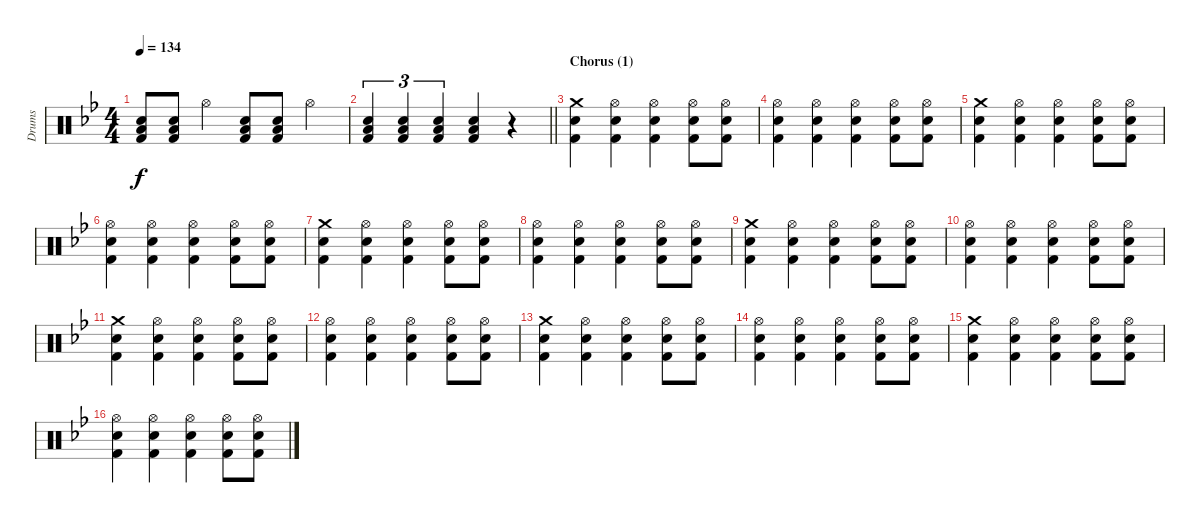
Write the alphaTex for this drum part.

\track ("Drums" "Drums") {instrument percussion}
\staff {score}
\articulation defaults
\ts (4 4)
\tempo 134
\clef neutral
\ks gminor
("Electric Snare (hit)" "Low Floor Tom (hit)" "Kick (hit) 2").8{dy f} ("Electric Snare (hit)" "Low Floor Tom (hit)" "Kick (hit) 2").8 "Hi-Hat (open)".4 ("Electric Snare (hit)" "Low Floor Tom (hit)" "Kick (hit) 2").8 ("Electric Snare (hit)" "Low Floor Tom (hit)" "Kick (hit) 2").8 "Hi-Hat (open)".4 |
\barLineRight lightlight
("Electric Snare (hit)" "Low Floor Tom (hit)" "Kick (hit) 2").4{tu (3 2)} ("Electric Snare (hit)" "Low Floor Tom (hit)" "Kick (hit) 2").4{tu (3 2)} ("Electric Snare (hit)" "Low Floor Tom (hit)" "Kick (hit) 2").4{tu (3 2)} ("Electric Snare (hit)" "Low Floor Tom (hit)" "Kick (hit) 2").4 r.4 |
\section ("" "Chorus (1)")
("Crash medium (hit)" "Electric Snare (hit)" "Kick (hit) 2").4 ("Hi-Hat (open)" "Electric Snare (hit)" "Kick (hit) 2").4 ("Hi-Hat (open)" "Electric Snare (hit)" "Kick (hit) 2").4 ("Hi-Hat (open)" "Electric Snare (hit)" "Kick (hit) 2").8 ("Hi-Hat (open)" "Electric Snare (hit)" "Kick (hit) 2").8 |
("Hi-Hat (open)" "Electric Snare (hit)" "Kick (hit) 2").4 ("Hi-Hat (open)" "Electric Snare (hit)" "Kick (hit) 2").4 ("Hi-Hat (open)" "Electric Snare (hit)" "Kick (hit) 2").4 ("Hi-Hat (open)" "Electric Snare (hit)" "Kick (hit) 2").8 ("Hi-Hat (open)" "Electric Snare (hit)" "Kick (hit) 2").8 |
("Crash medium (hit)" "Electric Snare (hit)" "Kick (hit) 2").4 ("Hi-Hat (open)" "Electric Snare (hit)" "Kick (hit) 2").4 ("Hi-Hat (open)" "Electric Snare (hit)" "Kick (hit) 2").4 ("Hi-Hat (open)" "Electric Snare (hit)" "Kick (hit) 2").8 ("Hi-Hat (open)" "Electric Snare (hit)" "Kick (hit) 2").8 |
("Hi-Hat (open)" "Electric Snare (hit)" "Kick (hit) 2").4 ("Hi-Hat (open)" "Electric Snare (hit)" "Kick (hit) 2").4 ("Hi-Hat (open)" "Electric Snare (hit)" "Kick (hit) 2").4 ("Hi-Hat (open)" "Electric Snare (hit)" "Kick (hit) 2").8 ("Hi-Hat (open)" "Electric Snare (hit)" "Kick (hit) 2").8 |
("Crash medium (hit)" "Electric Snare (hit)" "Kick (hit) 2").4 ("Hi-Hat (open)" "Electric Snare (hit)" "Kick (hit) 2").4 ("Hi-Hat (open)" "Electric Snare (hit)" "Kick (hit) 2").4 ("Hi-Hat (open)" "Electric Snare (hit)" "Kick (hit) 2").8 ("Hi-Hat (open)" "Electric Snare (hit)" "Kick (hit) 2").8 |
("Hi-Hat (open)" "Electric Snare (hit)" "Kick (hit) 2").4 ("Hi-Hat (open)" "Electric Snare (hit)" "Kick (hit) 2").4 ("Hi-Hat (open)" "Electric Snare (hit)" "Kick (hit) 2").4 ("Hi-Hat (open)" "Electric Snare (hit)" "Kick (hit) 2").8 ("Hi-Hat (open)" "Electric Snare (hit)" "Kick (hit) 2").8 |
("Crash medium (hit)" "Electric Snare (hit)" "Kick (hit) 2").4 ("Hi-Hat (open)" "Electric Snare (hit)" "Kick (hit) 2").4 ("Hi-Hat (open)" "Electric Snare (hit)" "Kick (hit) 2").4 ("Hi-Hat (open)" "Electric Snare (hit)" "Kick (hit) 2").8 ("Hi-Hat (open)" "Electric Snare (hit)" "Kick (hit) 2").8 |
("Hi-Hat (open)" "Electric Snare (hit)" "Kick (hit) 2").4 ("Hi-Hat (open)" "Electric Snare (hit)" "Kick (hit) 2").4 ("Hi-Hat (open)" "Electric Snare (hit)" "Kick (hit) 2").4 ("Hi-Hat (open)" "Electric Snare (hit)" "Kick (hit) 2").8 ("Hi-Hat (open)" "Electric Snare (hit)" "Kick (hit) 2").8 |
("Crash medium (hit)" "Electric Snare (hit)" "Kick (hit) 2").4 ("Hi-Hat (open)" "Electric Snare (hit)" "Kick (hit) 2").4 ("Hi-Hat (open)" "Electric Snare (hit)" "Kick (hit) 2").4 ("Hi-Hat (open)" "Electric Snare (hit)" "Kick (hit) 2").8 ("Hi-Hat (open)" "Electric Snare (hit)" "Kick (hit) 2").8 |
("Hi-Hat (open)" "Electric Snare (hit)" "Kick (hit) 2").4 ("Hi-Hat (open)" "Electric Snare (hit)" "Kick (hit) 2").4 ("Hi-Hat (open)" "Electric Snare (hit)" "Kick (hit) 2").4 ("Hi-Hat (open)" "Electric Snare (hit)" "Kick (hit) 2").8 ("Hi-Hat (open)" "Electric Snare (hit)" "Kick (hit) 2").8 |
("Crash medium (hit)" "Electric Snare (hit)" "Kick (hit) 2").4 ("Hi-Hat (open)" "Electric Snare (hit)" "Kick (hit) 2").4 ("Hi-Hat (open)" "Electric Snare (hit)" "Kick (hit) 2").4 ("Hi-Hat (open)" "Electric Snare (hit)" "Kick (hit) 2").8 ("Hi-Hat (open)" "Electric Snare (hit)" "Kick (hit) 2").8 |
("Hi-Hat (open)" "Electric Snare (hit)" "Kick (hit) 2").4 ("Hi-Hat (open)" "Electric Snare (hit)" "Kick (hit) 2").4 ("Hi-Hat (open)" "Electric Snare (hit)" "Kick (hit) 2").4 ("Hi-Hat (open)" "Electric Snare (hit)" "Kick (hit) 2").8 ("Hi-Hat (open)" "Electric Snare (hit)" "Kick (hit) 2").8 |
("Crash medium (hit)" "Electric Snare (hit)" "Kick (hit) 2").4 ("Hi-Hat (open)" "Electric Snare (hit)" "Kick (hit) 2").4 ("Hi-Hat (open)" "Electric Snare (hit)" "Kick (hit) 2").4 ("Hi-Hat (open)" "Electric Snare (hit)" "Kick (hit) 2").8 ("Hi-Hat (open)" "Electric Snare (hit)" "Kick (hit) 2").8 |
("Hi-Hat (open)" "Electric Snare (hit)" "Kick (hit) 2").4 ("Hi-Hat (open)" "Electric Snare (hit)" "Kick (hit) 2").4 ("Hi-Hat (open)" "Electric Snare (hit)" "Kick (hit) 2").4 ("Hi-Hat (open)" "Electric Snare (hit)" "Kick (hit) 2").8 ("Hi-Hat (open)" "Electric Snare (hit)" "Kick (hit) 2").8
